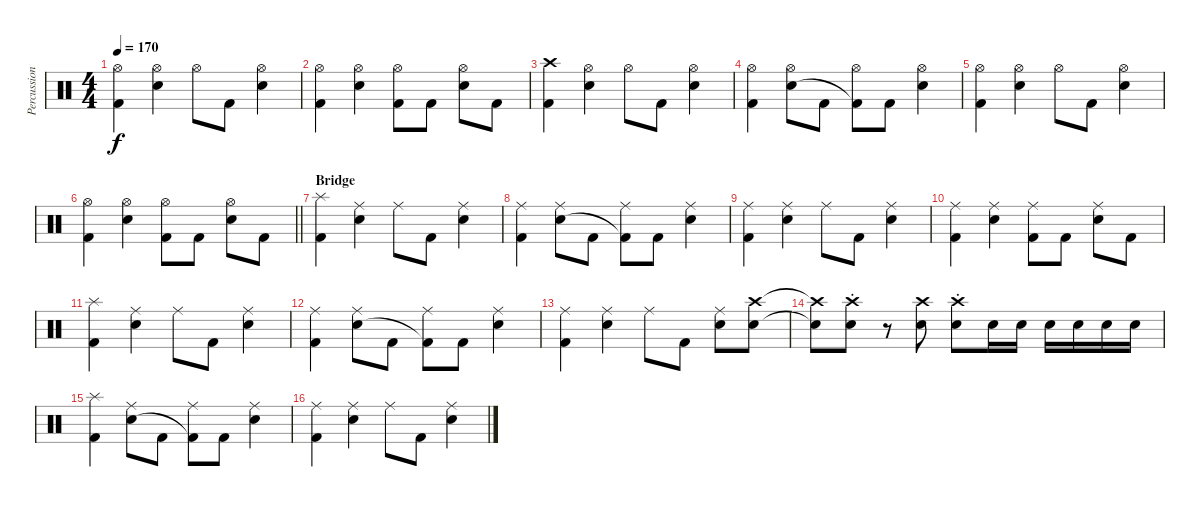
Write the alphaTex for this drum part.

\track ("Percussion" "Percussion") {instrument percussion}
\staff {score}
\articulation defaults
\ts (4 4)
\tempo 170
\clef neutral
\ks c
("Hi-Hat (open)" "Kick (hit) 2").4{dy f} ("Hi-Hat (open)" "Snare (hit) 2").4 "Hi-Hat (open)".8 "Kick (hit) 2".8 ("Hi-Hat (open)" "Snare (hit) 2").4 |
("Hi-Hat (open)" "Kick (hit) 2").4 ("Hi-Hat (open)" "Snare (hit) 2").4 ("Hi-Hat (open)" "Kick (hit) 2").8 "Kick (hit) 2".8 ("Hi-Hat (open)" "Snare (hit) 2").8 "Kick (hit) 2".8 |
("Crash high (hit)" "Kick (hit) 2").4 ("Hi-Hat (open)" "Snare (hit) 2").4 "Hi-Hat (open)".8 "Kick (hit) 2".8 ("Hi-Hat (open)" "Snare (hit) 2").4 |
("Hi-Hat (open)" "Kick (hit) 2").4 ("Hi-Hat (open)" "Snare (hit) 2").8 "Kick (hit) 2".8 ("Hi-Hat (open)" "Kick (hit) 2"{t}).8 "Kick (hit) 2".8 ("Hi-Hat (open)" "Snare (hit) 2").4 |
("Hi-Hat (open)" "Kick (hit) 2").4 ("Hi-Hat (open)" "Snare (hit) 2").4 "Hi-Hat (open)".8 "Kick (hit) 2".8 ("Hi-Hat (open)" "Snare (hit) 2").4 |
\barLineRight lightlight
("Hi-Hat (open)" "Kick (hit) 2").4 ("Hi-Hat (open)" "Snare (hit) 2").4 ("Hi-Hat (open)" "Kick (hit) 2").8 "Kick (hit) 2".8 ("Hi-Hat (open)" "Snare (hit) 2").8 "Kick (hit) 2".8 |
\section ("" "Bridge")
("Splash (hit)" "Kick (hit) 2").4 ("Ride (middle)" "Snare (hit) 2").4 "Ride (middle)".8 "Kick (hit) 2".8 ("Ride (middle)" "Snare (hit) 2").4 |
("Ride (middle)" "Kick (hit) 2").4 ("Ride (middle)" "Snare (hit) 2").8 "Kick (hit) 2".8 ("Ride (middle)" "Kick (hit) 2"{t}).8 "Kick (hit) 2".8 ("Ride (middle)" "Snare (hit) 2").4 |
("Ride (middle)" "Kick (hit) 2").4 ("Ride (middle)" "Snare (hit) 2").4 "Ride (middle)".8 "Kick (hit) 2".8 ("Ride (middle)" "Snare (hit) 2").4 |
("Ride (middle)" "Kick (hit) 2").4 ("Ride (middle)" "Snare (hit) 2").4 ("Ride (middle)" "Kick (hit) 2").8 "Kick (hit) 2".8 ("Ride (middle)" "Snare (hit) 2").8 "Kick (hit) 2".8 |
("Splash (hit)" "Kick (hit) 2").4 ("Ride (middle)" "Snare (hit) 2").4 "Ride (middle)".8 "Kick (hit) 2".8 ("Ride (middle)" "Snare (hit) 2").4 |
("Ride (middle)" "Kick (hit) 2").4 ("Ride (middle)" "Snare (hit) 2").8 "Kick (hit) 2".8 ("Ride (middle)" "Kick (hit) 2"{t}).8 "Kick (hit) 2".8 ("Ride (middle)" "Snare (hit) 2").4 |
("Ride (middle)" "Kick (hit) 2").4 ("Ride (middle)" "Snare (hit) 2").4 "Ride (middle)".8 "Kick (hit) 2".8 ("Ride (middle)" "Snare (hit) 2").8 ("Crash high (hit)" "Snare (hit) 2").8 |
("Crash high (hit)"{t} "Snare (hit) 2"{t}).8 ("Crash high (hit)" "Snare (hit) 2"{st}).8 r.8 ("Crash high (hit)" "Snare (hit) 2").8 ("Crash high (hit)" "Snare (hit) 2"{st}).8 "Snare (hit) 2".16 "Electric Snare (hit)".16 "Snare (hit) 2".16 "Snare (hit) 2".16 "Electric Snare (hit)".16 "Electric Snare (hit)".16 |
("Splash (hit)" "Kick (hit) 2").4 ("Ride (middle)" "Snare (hit) 2").8 "Kick (hit) 2".8 ("Ride (middle)" "Kick (hit) 2"{t}).8 "Kick (hit) 2".8 ("Ride (middle)" "Snare (hit) 2").4 |
("Ride (middle)" "Kick (hit) 2").4 ("Ride (middle)" "Snare (hit) 2").4 "Ride (middle)".8 "Kick (hit) 2".8 ("Ride (middle)" "Snare (hit) 2").4
